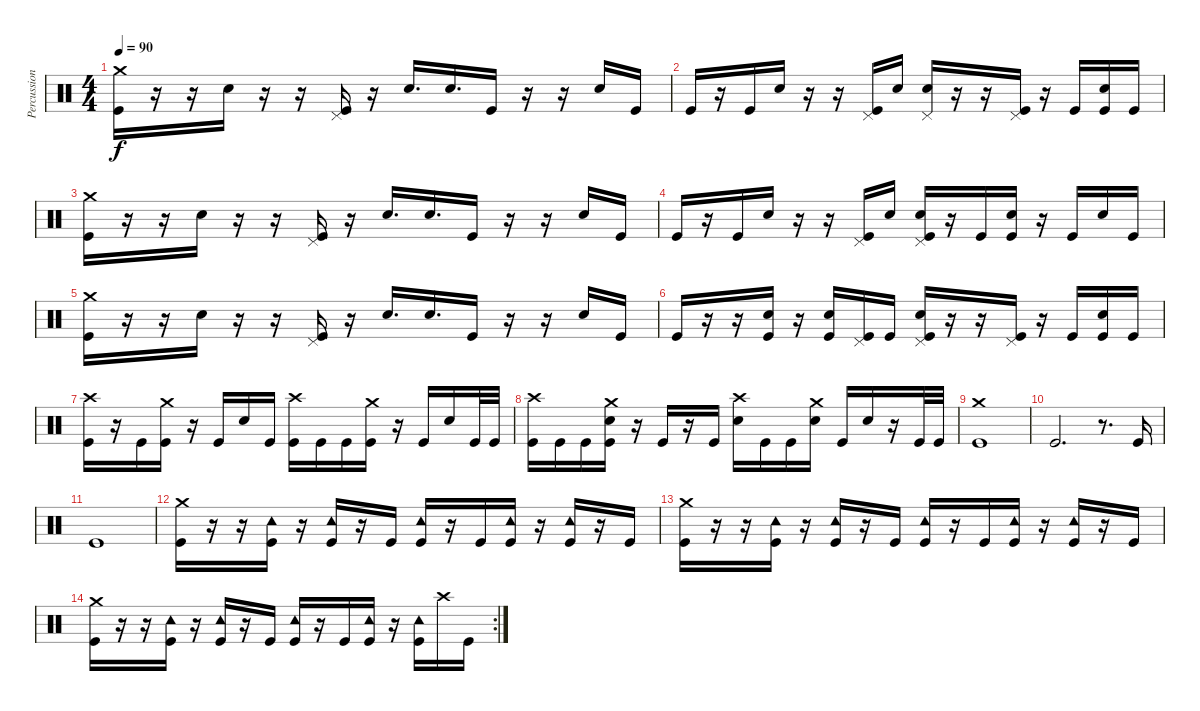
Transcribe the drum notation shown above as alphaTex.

\track ("Percussion" "Percussion") {instrument percussion}
\staff {score}
\articulation defaults
\ts (4 4)
\tempo 90
\clef neutral
\ks c
("Crash medium (hit)" "Kick (hit)").16{dy f} r.16 r.16 "Electric Snare (hit)".16 r.16 r.16 ("Pedal Hi-Hat (hit)" "Kick (hit)").16 r.16 "Electric Snare (hit)".16{d} "Electric Snare (hit)".16{d} "Kick (hit)".16 r.16 r.16 "Electric Snare (hit)".16 "Kick (hit)".16 |
"Kick (hit)".16 r.16 "Kick (hit)".16 "Electric Snare (hit)".16 r.16 r.16 ("Pedal Hi-Hat (hit)" "Kick (hit)").16 "Electric Snare (hit)".16 ("Electric Snare (hit)" "Pedal Hi-Hat (hit)").16 r.16 r.16 ("Pedal Hi-Hat (hit)" "Kick (hit)").16 r.16 "Kick (hit)".16 ("Electric Snare (hit)" "Kick (hit)").16 "Kick (hit)".16 |
("Crash medium (hit)" "Kick (hit)").16 r.16 r.16 "Electric Snare (hit)".16 r.16 r.16 ("Pedal Hi-Hat (hit)" "Kick (hit)").16 r.16 "Electric Snare (hit)".16{d} "Electric Snare (hit)".16{d} "Kick (hit)".16 r.16 r.16 "Electric Snare (hit)".16 "Kick (hit)".16 |
"Kick (hit)".16 r.16 "Kick (hit)".16 "Electric Snare (hit)".16 r.16 r.16 ("Pedal Hi-Hat (hit)" "Kick (hit)").16 "Electric Snare (hit)".16 ("Electric Snare (hit)" "Pedal Hi-Hat (hit)" "Kick (hit)").16 r.16 "Kick (hit)".16 ("Electric Snare (hit)" "Kick (hit)").16 r.16 "Kick (hit)".16 "Electric Snare (hit)".16 "Kick (hit)".16 |
("Crash medium (hit)" "Kick (hit)").16 r.16 r.16 "Electric Snare (hit)".16 r.16 r.16 ("Pedal Hi-Hat (hit)" "Kick (hit)").16 r.16 "Electric Snare (hit)".16{d} "Electric Snare (hit)".16{d} "Kick (hit)".16 r.16 r.16 "Electric Snare (hit)".16 "Kick (hit)".16 |
"Kick (hit)".16 r.16 r.16 ("Electric Snare (hit)" "Kick (hit)").16 r.16 ("Electric Snare (hit)" "Kick (hit)").16 ("Pedal Hi-Hat (hit)" "Kick (hit)").16 "Kick (hit)".16 ("Electric Snare (hit)" "Pedal Hi-Hat (hit)" "Kick (hit)").16 r.16 r.16 ("Pedal Hi-Hat (hit)" "Kick (hit)").16 r.16 "Kick (hit)".16 ("Electric Snare (hit)" "Kick (hit)").16 "Kick (hit)".16 |
("Crash high (hit)" "Kick (hit)").16 r.16 "Kick (hit)".16 ("Crash medium (hit)" "Kick (hit)").16 r.16 "Kick (hit)".16 "Electric Snare (hit)".16 "Kick (hit)".16 ("Crash high (hit)" "Kick (hit)").16 "Kick (hit)".16 "Kick (hit)".16 ("Crash medium (hit)" "Kick (hit)").16 r.16 "Kick (hit)".16 "Electric Snare (hit)".16 "Kick (hit)".32 "Kick (hit)".32 |
("Crash high (hit)" "Kick (hit)").16 "Kick (hit)".16 "Kick (hit)".16 ("Electric Snare (hit)" "Crash medium (hit)" "Kick (hit)").16 r.16 "Kick (hit)".16 r.16 "Kick (hit)".16 ("Electric Snare (hit)" "Crash high (hit)").16 "Kick (hit)".16 "Kick (hit)".16 ("Electric Snare (hit)" "Crash medium (hit)").16 "Kick (hit)".16 "Electric Snare (hit)".16 r.16 "Kick (hit)".32 "Kick (hit)".32 |
("Kick (hit)" "Crash medium (hit)").1 |
"Kick (hit)".2{d} r.8{d} "Kick (hit)".16 |
"Kick (hit)".1 |
("Kick (hit)" "Crash medium (hit)").16 r.16 r.16 ("Kick (hit)" "Tambourine (hit)").16 r.16 ("Kick (hit)" "Tambourine (hit)").16 r.16 "Kick (hit)".16 ("Kick (hit)" "Tambourine (hit)").16 r.16 "Kick (hit)".16 ("Kick (hit)" "Tambourine (hit)").16 r.16 ("Kick (hit)" "Tambourine (hit)").16 r.16 "Kick (hit)".16 |
("Kick (hit)" "Crash medium (hit)").16 r.16 r.16 ("Kick (hit)" "Tambourine (hit)").16 r.16 ("Kick (hit)" "Tambourine (hit)").16 r.16 "Kick (hit)".16 ("Kick (hit)" "Tambourine (hit)").16 r.16 "Kick (hit)".16 ("Kick (hit)" "Tambourine (hit)").16 r.16 ("Kick (hit)" "Tambourine (hit)").16 r.16 "Kick (hit)".16 |
\rc 2
("Kick (hit)" "Crash medium (hit)").16 r.16 r.16 ("Kick (hit)" "Tambourine (hit)").16 r.16 ("Kick (hit)" "Tambourine (hit)").16 r.16 "Kick (hit)".16 ("Kick (hit)" "Tambourine (hit)").16 r.16 "Kick (hit)".16 ("Kick (hit)" "Tambourine (hit)").16 r.16 ("Kick (hit)" "Tambourine (hit)").16 "Crash high (hit)".16 "Kick (hit)".16
